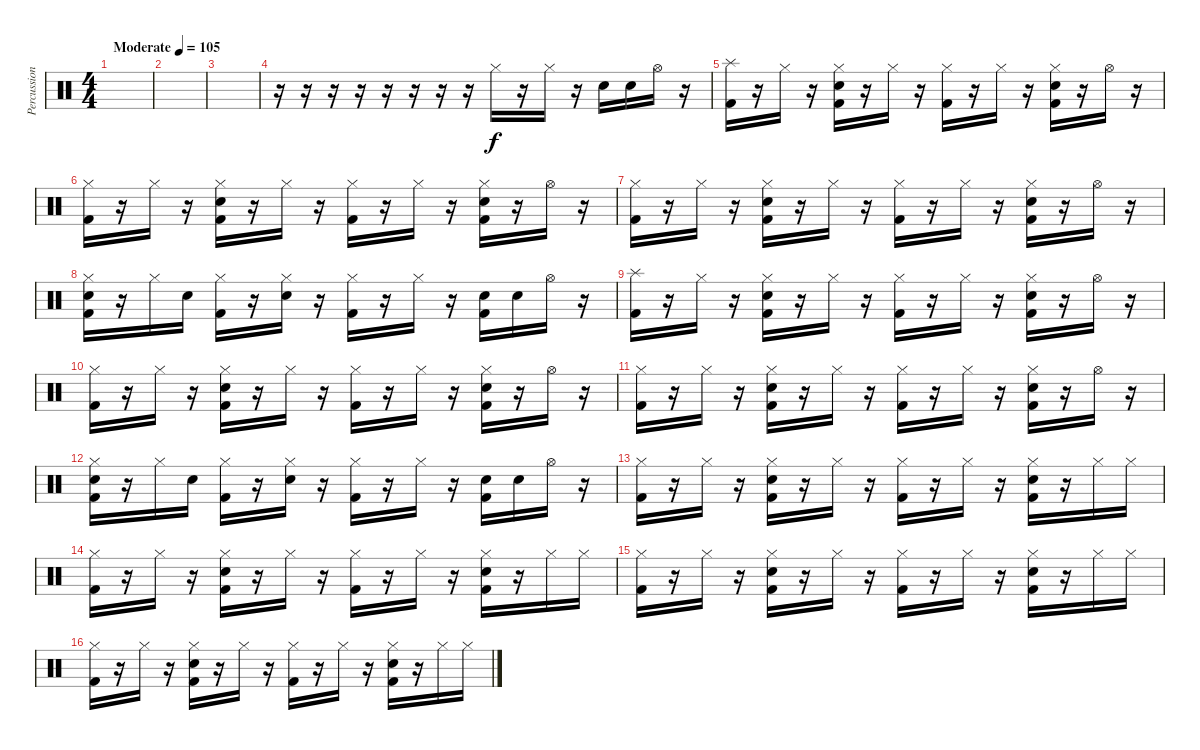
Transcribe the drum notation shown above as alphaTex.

\track ("Percussion" "Percussion") {instrument percussion}
\staff {score}
\articulation defaults
\ts (4 4)
\tempo (105 "Moderate")
\clef neutral
\ks c
|
|
|
r.16 r.16 r.16 r.16 r.16 r.16 r.16 r.16 "Hi-Hat (closed)".16 r.16 "Hi-Hat (closed)".16 r.16 "Snare (hit) 2".16 "Snare (hit) 2".16 "Hi-Hat (open)".16 r.16 |
("Splash (hit)" "Kick (hit) 2").16 r.16 "Hi-Hat (closed)".16 r.16 ("Hi-Hat (closed)" "Snare (hit) 2" "Kick (hit) 2").16 r.16 "Hi-Hat (closed)".16 r.16 ("Hi-Hat (closed)" "Kick (hit) 2").16 r.16 "Hi-Hat (closed)".16 r.16 ("Hi-Hat (closed)" "Snare (hit) 2" "Kick (hit) 2").16 r.16 "Hi-Hat (open)".16 r.16 |
("Hi-Hat (closed)" "Kick (hit) 2").16 r.16 "Hi-Hat (closed)".16 r.16 ("Hi-Hat (closed)" "Snare (hit) 2" "Kick (hit) 2").16 r.16 "Hi-Hat (closed)".16 r.16 ("Hi-Hat (closed)" "Kick (hit) 2").16 r.16 "Hi-Hat (closed)".16 r.16 ("Hi-Hat (closed)" "Snare (hit) 2" "Kick (hit) 2").16 r.16 "Hi-Hat (open)".16 r.16 |
("Hi-Hat (closed)" "Kick (hit) 2").16 r.16 "Hi-Hat (closed)".16 r.16 ("Hi-Hat (closed)" "Snare (hit) 2" "Kick (hit) 2").16 r.16 "Hi-Hat (closed)".16 r.16 ("Hi-Hat (closed)" "Kick (hit) 2").16 r.16 "Hi-Hat (closed)".16 r.16 ("Hi-Hat (closed)" "Snare (hit) 2" "Kick (hit) 2").16 r.16 "Hi-Hat (open)".16 r.16 |
("Hi-Hat (closed)" "Snare (hit) 2" "Kick (hit) 2").16 r.16 "Hi-Hat (closed)".16 "Snare (hit) 2".16 ("Hi-Hat (closed)" "Kick (hit) 2").16 r.16 ("Hi-Hat (closed)" "Snare (hit) 2").16 r.16 ("Hi-Hat (closed)" "Kick (hit) 2").16 r.16 "Hi-Hat (closed)".16 r.16 ("Snare (hit) 2" "Kick (hit) 2").16 "Snare (hit) 2".16 "Hi-Hat (open)".16 r.16 |
("Splash (hit)" "Kick (hit) 2").16 r.16 "Hi-Hat (closed)".16 r.16 ("Hi-Hat (closed)" "Snare (hit) 2" "Kick (hit) 2").16 r.16 "Hi-Hat (closed)".16 r.16 ("Hi-Hat (closed)" "Kick (hit) 2").16 r.16 "Hi-Hat (closed)".16 r.16 ("Hi-Hat (closed)" "Snare (hit) 2" "Kick (hit) 2").16 r.16 "Hi-Hat (open)".16 r.16 |
("Hi-Hat (closed)" "Kick (hit) 2").16 r.16 "Hi-Hat (closed)".16 r.16 ("Hi-Hat (closed)" "Snare (hit) 2" "Kick (hit) 2").16 r.16 "Hi-Hat (closed)".16 r.16 ("Hi-Hat (closed)" "Kick (hit) 2").16 r.16 "Hi-Hat (closed)".16 r.16 ("Hi-Hat (closed)" "Snare (hit) 2" "Kick (hit) 2").16 r.16 "Hi-Hat (open)".16 r.16 |
("Hi-Hat (closed)" "Kick (hit) 2").16 r.16 "Hi-Hat (closed)".16 r.16 ("Hi-Hat (closed)" "Snare (hit) 2" "Kick (hit) 2").16 r.16 "Hi-Hat (closed)".16 r.16 ("Hi-Hat (closed)" "Kick (hit) 2").16 r.16 "Hi-Hat (closed)".16 r.16 ("Hi-Hat (closed)" "Snare (hit) 2" "Kick (hit) 2").16 r.16 "Hi-Hat (open)".16 r.16 |
("Hi-Hat (closed)" "Snare (hit) 2" "Kick (hit) 2").16 r.16 "Hi-Hat (closed)".16 "Snare (hit) 2".16 ("Hi-Hat (closed)" "Kick (hit) 2").16 r.16 ("Hi-Hat (closed)" "Snare (hit) 2").16 r.16 ("Hi-Hat (closed)" "Kick (hit) 2").16 r.16 "Hi-Hat (closed)".16 r.16 ("Snare (hit) 2" "Kick (hit) 2").16 "Snare (hit) 2".16 "Hi-Hat (open)".16 r.16 |
("Hi-Hat (closed)" "Kick (hit) 2").16 r.16 "Hi-Hat (closed)".16 r.16 ("Hi-Hat (closed)" "Snare (hit) 2" "Kick (hit) 2").16 r.16 "Hi-Hat (closed)".16 r.16 ("Hi-Hat (closed)" "Kick (hit) 2").16 r.16 "Hi-Hat (closed)".16 r.16 ("Hi-Hat (closed)" "Snare (hit) 2" "Kick (hit) 2").16 r.16 "Hi-Hat (closed)".16 "Hi-Hat (closed)".16 |
("Hi-Hat (closed)" "Kick (hit) 2").16 r.16 "Hi-Hat (closed)".16 r.16 ("Hi-Hat (closed)" "Snare (hit) 2" "Kick (hit) 2").16 r.16 "Hi-Hat (closed)".16 r.16 ("Hi-Hat (closed)" "Kick (hit) 2").16 r.16 "Hi-Hat (closed)".16 r.16 ("Hi-Hat (closed)" "Snare (hit) 2" "Kick (hit) 2").16 r.16 "Hi-Hat (closed)".16 "Hi-Hat (closed)".16 |
("Hi-Hat (closed)" "Kick (hit) 2").16 r.16 "Hi-Hat (closed)".16 r.16 ("Hi-Hat (closed)" "Snare (hit) 2" "Kick (hit) 2").16 r.16 "Hi-Hat (closed)".16 r.16 ("Hi-Hat (closed)" "Kick (hit) 2").16 r.16 "Hi-Hat (closed)".16 r.16 ("Hi-Hat (closed)" "Snare (hit) 2" "Kick (hit) 2").16 r.16 "Hi-Hat (closed)".16 "Hi-Hat (closed)".16 |
("Hi-Hat (closed)" "Kick (hit) 2").16 r.16 "Hi-Hat (closed)".16 r.16 ("Hi-Hat (closed)" "Snare (hit) 2" "Kick (hit) 2").16 r.16 "Hi-Hat (closed)".16 r.16 ("Hi-Hat (closed)" "Kick (hit) 2").16 r.16 "Hi-Hat (closed)".16 r.16 ("Hi-Hat (closed)" "Snare (hit) 2" "Kick (hit) 2").16 r.16 "Hi-Hat (closed)".16 "Hi-Hat (closed)".16
